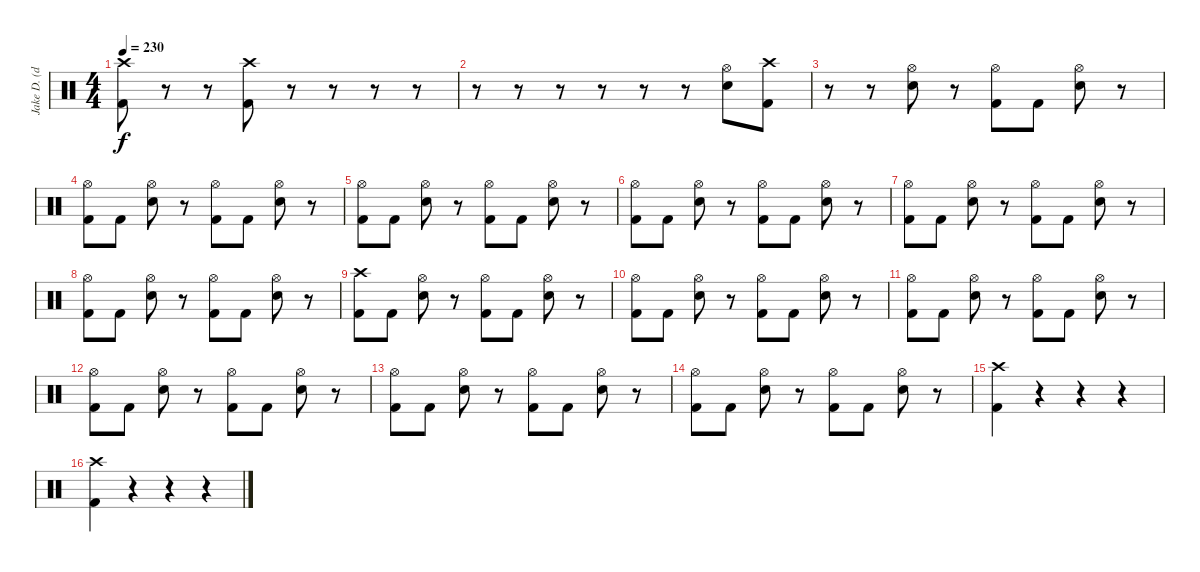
\track ("Jake D. (drums)" "Jake D. (d") {instrument percussion}
\staff {score}
\articulation defaults
\ts (4 4)
\tempo 230
\clef neutral
\ks c
("Crash high (hit)" "Kick (hit) 2").8{dy f} r.8 r.8 ("Crash high (hit)" "Kick (hit) 2").8 r.8 r.8 r.8 r.8 |
r.8 r.8 r.8 r.8 r.8 r.8 ("Hi-Hat (open)" "Electric Snare (hit)").8 ("Crash high (hit)" "Kick (hit) 2").8 |
r.8 r.8 ("Hi-Hat (open)" "Electric Snare (hit)").8 r.8 ("Hi-Hat (open)" "Kick (hit) 2").8 "Kick (hit) 2".8 ("Hi-Hat (open)" "Electric Snare (hit)").8 r.8 |
("Hi-Hat (open)" "Kick (hit) 2").8 "Kick (hit) 2".8 ("Hi-Hat (open)" "Electric Snare (hit)").8 r.8 ("Hi-Hat (open)" "Kick (hit) 2").8 "Kick (hit) 2".8 ("Hi-Hat (open)" "Electric Snare (hit)").8 r.8 |
("Hi-Hat (open)" "Kick (hit) 2").8 "Kick (hit) 2".8 ("Hi-Hat (open)" "Electric Snare (hit)").8 r.8 ("Hi-Hat (open)" "Kick (hit) 2").8 "Kick (hit) 2".8 ("Hi-Hat (open)" "Electric Snare (hit)").8 r.8 |
("Hi-Hat (open)" "Kick (hit) 2").8 "Kick (hit) 2".8 ("Hi-Hat (open)" "Electric Snare (hit)").8 r.8 ("Hi-Hat (open)" "Kick (hit) 2").8 "Kick (hit) 2".8 ("Hi-Hat (open)" "Electric Snare (hit)").8 r.8 |
("Hi-Hat (open)" "Kick (hit) 2").8 "Kick (hit) 2".8 ("Hi-Hat (open)" "Electric Snare (hit)").8 r.8 ("Hi-Hat (open)" "Kick (hit) 2").8 "Kick (hit) 2".8 ("Hi-Hat (open)" "Electric Snare (hit)").8 r.8 |
("Hi-Hat (open)" "Kick (hit) 2").8 "Kick (hit) 2".8 ("Hi-Hat (open)" "Electric Snare (hit)").8 r.8 ("Hi-Hat (open)" "Kick (hit) 2").8 "Kick (hit) 2".8 ("Hi-Hat (open)" "Electric Snare (hit)").8 r.8 |
("Crash high (hit)" "Kick (hit) 2").8 "Kick (hit) 2".8 ("Hi-Hat (open)" "Electric Snare (hit)").8 r.8 ("Hi-Hat (open)" "Kick (hit) 2").8 "Kick (hit) 2".8 ("Hi-Hat (open)" "Electric Snare (hit)").8 r.8 |
("Hi-Hat (open)" "Kick (hit) 2").8 "Kick (hit) 2".8 ("Hi-Hat (open)" "Electric Snare (hit)").8 r.8 ("Hi-Hat (open)" "Kick (hit) 2").8 "Kick (hit) 2".8 ("Hi-Hat (open)" "Electric Snare (hit)").8 r.8 |
("Hi-Hat (open)" "Kick (hit) 2").8 "Kick (hit) 2".8 ("Hi-Hat (open)" "Electric Snare (hit)").8 r.8 ("Hi-Hat (open)" "Kick (hit) 2").8 "Kick (hit) 2".8 ("Hi-Hat (open)" "Electric Snare (hit)").8 r.8 |
("Hi-Hat (open)" "Kick (hit) 2").8 "Kick (hit) 2".8 ("Hi-Hat (open)" "Electric Snare (hit)").8 r.8 ("Hi-Hat (open)" "Kick (hit) 2").8 "Kick (hit) 2".8 ("Hi-Hat (open)" "Electric Snare (hit)").8 r.8 |
("Hi-Hat (open)" "Kick (hit) 2").8 "Kick (hit) 2".8 ("Hi-Hat (open)" "Electric Snare (hit)").8 r.8 ("Hi-Hat (open)" "Kick (hit) 2").8 "Kick (hit) 2".8 ("Hi-Hat (open)" "Electric Snare (hit)").8 r.8 |
("Hi-Hat (open)" "Kick (hit) 2").8 "Kick (hit) 2".8 ("Hi-Hat (open)" "Electric Snare (hit)").8 r.8 ("Hi-Hat (open)" "Kick (hit) 2").8 "Kick (hit) 2".8 ("Hi-Hat (open)" "Electric Snare (hit)").8 r.8 |
("Crash high (hit)" "Kick (hit) 2").4 r.4 r.4 r.4 |
("Crash high (hit)" "Kick (hit) 2").4 r.4 r.4{volume 0} r.4
